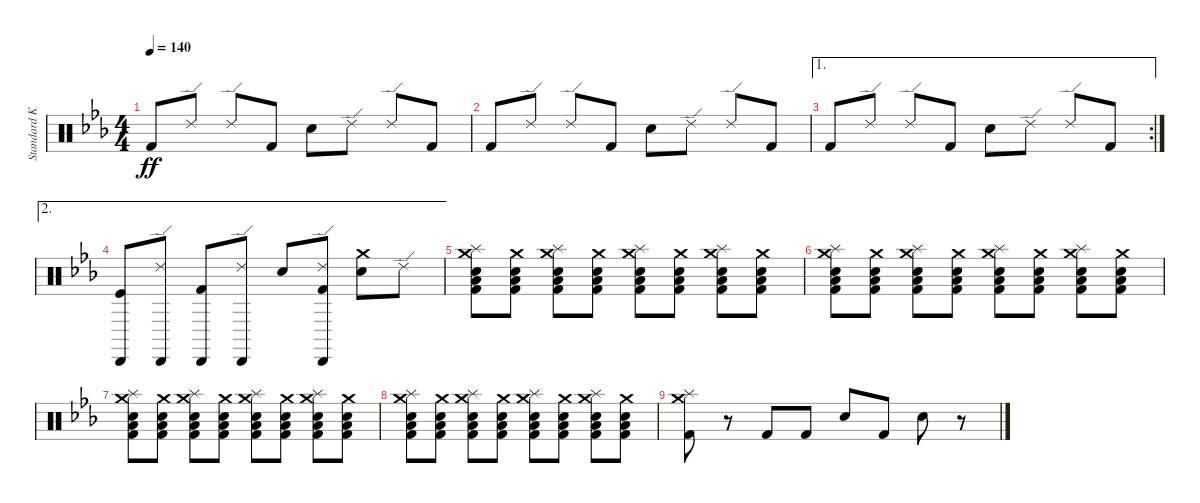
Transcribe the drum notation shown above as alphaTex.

\track ("Standard Kit" "Standard K") {instrument percussion}
\staff {score}
\articulation defaults
\ts (4 4)
\tempo 140
\clef neutral
\ks eb "Kick (hit) 2".8{dy ff} "Ride (edge) 2".8 "Ride (edge) 2".8 "Kick (hit) 2".8 "Snare (hit) 2".8 "Ride (edge) 2".8 "Ride (edge) 2".8 "Kick (hit) 2".8
|
"Kick (hit) 2".8 "Ride (edge) 2".8 "Ride (edge) 2".8 "Kick (hit) 2".8 "Snare (hit) 2".8 "Ride (edge) 2".8 "Ride (edge) 2".8 "Kick (hit) 2".8 |
\ae 1
\rc 2 "Kick (hit) 2".8 "Ride (edge) 2".8 "Ride (edge) 2".8 "Kick (hit) 2".8 "Snare (hit) 2".8 "Ride (edge) 2".8 "Ride (edge) 2".8 "Kick (hit) 2".8
|
\ae 2
("Kick (hit)" "Cabasa (hit)").8 ("Cabasa (hit)" "Ride (edge) 2").8 ("Kick (hit) 2" "Cabasa (hit)").8 ("Cabasa (hit)" "Ride (edge) 2").8 "Snare (hit) 2".8 ("Kick (hit) 2" "Cabasa (hit)" "Ride (edge) 2").8 ("Snare (hit) 2" "Crash medium (hit)").8 "Ride (edge) 2".8 |
("Kick (hit) 2" "Low Floor Tom (hit)" "Electric Snare (hit)" "Splash (hit)" "Crash medium (hit)").8 ("Kick (hit) 2" "Low Floor Tom (hit)" "Electric Snare (hit)" "Crash medium (hit)").8 ("Kick (hit) 2" "Low Floor Tom (hit)" "Electric Snare (hit)" "Splash (hit)" "Crash medium (hit)").8 ("Kick (hit) 2" "Low Floor Tom (hit)" "Electric Snare (hit)" "Crash medium (hit)").8 ("Kick (hit) 2" "Low Floor Tom (hit)" "Electric Snare (hit)" "Splash (hit)" "Crash medium (hit)").8 ("Kick (hit) 2" "Low Floor Tom (hit)" "Electric Snare (hit)" "Crash medium (hit)").8 ("Kick (hit) 2" "Low Floor Tom (hit)" "Electric Snare (hit)" "Splash (hit)" "Crash medium (hit)").8 ("Kick (hit) 2" "Low Floor Tom (hit)" "Electric Snare (hit)" "Crash medium (hit)").8 |
("Kick (hit) 2" "Low Floor Tom (hit)" "Electric Snare (hit)" "Splash (hit)" "Crash medium (hit)").8 ("Kick (hit) 2" "Low Floor Tom (hit)" "Electric Snare (hit)" "Crash medium (hit)").8 ("Kick (hit) 2" "Low Floor Tom (hit)" "Electric Snare (hit)" "Splash (hit)" "Crash medium (hit)").8 ("Kick (hit) 2" "Low Floor Tom (hit)" "Electric Snare (hit)" "Crash medium (hit)").8 ("Kick (hit) 2" "Low Floor Tom (hit)" "Electric Snare (hit)" "Splash (hit)" "Crash medium (hit)").8 ("Kick (hit) 2" "Low Floor Tom (hit)" "Electric Snare (hit)" "Crash medium (hit)").8 ("Kick (hit) 2" "Low Floor Tom (hit)" "Electric Snare (hit)" "Splash (hit)" "Crash medium (hit)").8 ("Kick (hit) 2" "Low Floor Tom (hit)" "Electric Snare (hit)" "Crash medium (hit)").8 |
("Kick (hit) 2" "Low Floor Tom (hit)" "Electric Snare (hit)" "Splash (hit)" "Crash medium (hit)").8 ("Kick (hit) 2" "Low Floor Tom (hit)" "Electric Snare (hit)" "Crash medium (hit)").8 ("Kick (hit) 2" "Low Floor Tom (hit)" "Electric Snare (hit)" "Splash (hit)" "Crash medium (hit)").8 ("Kick (hit) 2" "Low Floor Tom (hit)" "Electric Snare (hit)" "Crash medium (hit)").8 ("Kick (hit) 2" "Low Floor Tom (hit)" "Electric Snare (hit)" "Splash (hit)" "Crash medium (hit)").8 ("Kick (hit) 2" "Low Floor Tom (hit)" "Electric Snare (hit)" "Crash medium (hit)").8 ("Kick (hit) 2" "Low Floor Tom (hit)" "Electric Snare (hit)" "Splash (hit)" "Crash medium (hit)").8 ("Kick (hit) 2" "Low Floor Tom (hit)" "Electric Snare (hit)" "Crash medium (hit)").8 |
("Kick (hit) 2" "Low Floor Tom (hit)" "Electric Snare (hit)" "Splash (hit)" "Crash medium (hit)").8 ("Kick (hit) 2" "Low Floor Tom (hit)" "Electric Snare (hit)" "Crash medium (hit)").8 ("Kick (hit) 2" "Low Floor Tom (hit)" "Electric Snare (hit)" "Splash (hit)" "Crash medium (hit)").8 ("Kick (hit) 2" "Low Floor Tom (hit)" "Electric Snare (hit)" "Crash medium (hit)").8 ("Kick (hit) 2" "Low Floor Tom (hit)" "Electric Snare (hit)" "Splash (hit)" "Crash medium (hit)").8 ("Kick (hit) 2" "Low Floor Tom (hit)" "Electric Snare (hit)" "Crash medium (hit)").8 ("Kick (hit) 2" "Low Floor Tom (hit)" "Electric Snare (hit)" "Splash (hit)" "Crash medium (hit)").8 ("Kick (hit) 2" "Low Floor Tom (hit)" "Electric Snare (hit)" "Crash medium (hit)").8 |
("Kick (hit) 2" "Crash medium (hit)" "Splash (hit)").8 r.8 "Kick (hit) 2".8 "Kick (hit) 2".8 "Electric Snare (hit)".8 "Kick (hit) 2".8 "Electric Snare (hit)".8 r.8
